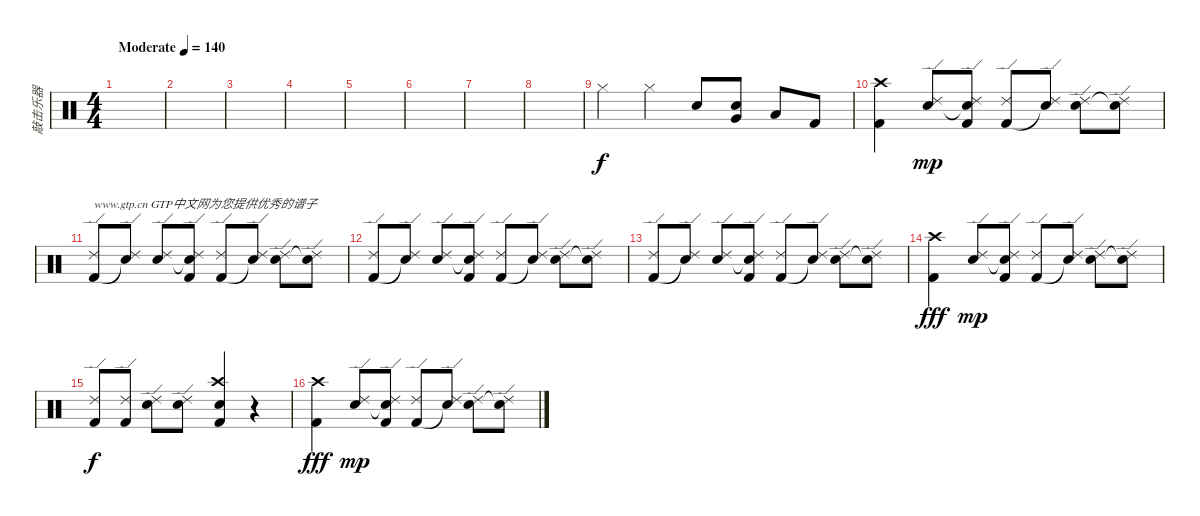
\track ("敲击乐器" "敲击乐器") {instrument percussion}
\staff {score}
\articulation defaults
\ts (4 4)
\tempo (140 "Moderate")
\clef neutral
\ks c
|
|
|
|
|
|
|
|
"Hi-Hat (closed)".4 "Hi-Hat (closed)".4 "Electric Snare (hit)".8 ("Electric Snare (hit)" "Very Low Tom (hit)").8 "Low Floor Tom (hit)".8 "Kick (hit) 2".8 |
("Kick (hit) 2" "Crash high (hit)").4 ("Electric Snare (hit)" "Ride (edge) 2").8{dy mp} ("Snare (hit)"{t} "Kick (hit) 2" "Ride (edge) 2").8 ("Kick (hit) 2" "Ride (edge) 2").8 ("Snare (hit)"{t} "Ride (edge) 2").8 ("Electric Snare (hit)" "Ride (edge) 2").8 ("Snare (hit)"{t} "Ride (edge) 2").8 |
("Kick (hit) 2" "Ride (edge) 2").8{txt "www.gtp.cn GTP中文网为您提供优秀的谱子"} ("Snare (hit)"{t} "Ride (edge) 2").8 ("Electric Snare (hit)" "Ride (edge) 2").8 ("Snare (hit)"{t} "Kick (hit) 2" "Ride (edge) 2").8 ("Kick (hit) 2" "Ride (edge) 2").8 ("Snare (hit)"{t} "Ride (edge) 2").8 ("Electric Snare (hit)" "Ride (edge) 2").8 ("Snare (hit)"{t} "Ride (edge) 2").8 |
("Kick (hit) 2" "Ride (edge) 2").8 ("Snare (hit)"{t} "Ride (edge) 2").8 ("Electric Snare (hit)" "Ride (edge) 2").8 ("Snare (hit)"{t} "Kick (hit) 2" "Ride (edge) 2").8 ("Kick (hit) 2" "Ride (edge) 2").8 ("Snare (hit)"{t} "Ride (edge) 2").8 ("Electric Snare (hit)" "Ride (edge) 2").8 ("Snare (hit)"{t} "Ride (edge) 2").8 |
("Kick (hit) 2" "Ride (edge) 2").8 ("Snare (hit)"{t} "Ride (edge) 2").8 ("Electric Snare (hit)" "Ride (edge) 2").8 ("Snare (hit)"{t} "Kick (hit) 2" "Ride (edge) 2").8 ("Kick (hit) 2" "Ride (edge) 2").8 ("Snare (hit)"{t} "Ride (edge) 2").8 ("Electric Snare (hit)" "Ride (edge) 2").8 ("Snare (hit)"{t} "Ride (edge) 2").8 |
("Kick (hit) 2" "Crash high (hit)").4{dy fff} ("Electric Snare (hit)" "Ride (edge) 2").8{dy mp} ("Snare (hit)"{t} "Kick (hit) 2" "Ride (edge) 2").8 ("Kick (hit) 2" "Ride (edge) 2").8 ("Snare (hit)"{t} "Ride (edge) 2").8 ("Electric Snare (hit)" "Ride (edge) 2").8 ("Snare (hit)"{t} "Ride (edge) 2").8 |
("Kick (hit) 2" "Ride (edge) 2").8{dy f} ("Kick (hit) 2" "Ride (edge) 2").8 ("Snare (hit) 2" "Ride (edge) 2").8 ("Snare (hit) 2" "Ride (edge) 2").8 ("Crash high (hit)" "Snare (hit) 2" "Kick (hit) 2").4 r.4 |
("Kick (hit) 2" "Crash high (hit)").4{dy fff} ("Electric Snare (hit)" "Ride (edge) 2").8{dy mp} ("Snare (hit)"{t} "Kick (hit) 2" "Ride (edge) 2").8 ("Kick (hit) 2" "Ride (edge) 2").8 ("Snare (hit)"{t} "Ride (edge) 2").8 ("Electric Snare (hit)" "Ride (edge) 2").8 ("Snare (hit)"{t} "Ride (edge) 2").8
